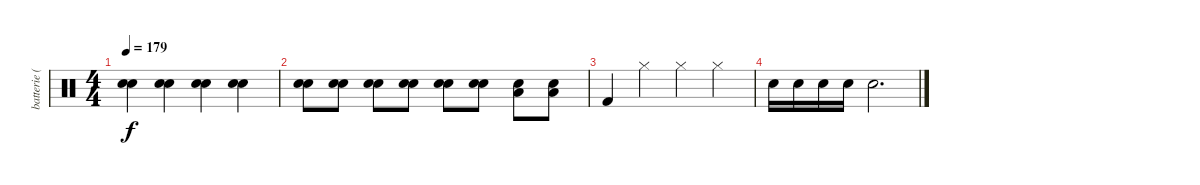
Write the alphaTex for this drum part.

\track ("batterie ( Carlos ) " "batterie (") {instrument percussion}
\staff {score}
\articulation defaults
\ts (4 4)
\tempo 179
\clef neutral
\ks c
("Electric Snare (hit)" "Snare (hit) 2").4{dy f} ("Electric Snare (hit)" "Snare (hit) 2").4 ("Electric Snare (hit)" "Snare (hit) 2").4 ("Electric Snare (hit)" "Snare (hit) 2").4 |
("Electric Snare (hit)" "Snare (hit) 2").8 ("Electric Snare (hit)" "Snare (hit) 2").8 ("Electric Snare (hit)" "Snare (hit) 2").8 ("Electric Snare (hit)" "Snare (hit) 2").8 ("Electric Snare (hit)" "Snare (hit) 2").8 ("Electric Snare (hit)" "Snare (hit) 2").8 ("Low Floor Tom (hit)" "Electric Snare (hit)").8 ("Low Floor Tom (hit)" "Electric Snare (hit)").8 |
"Kick (hit) 2".4 "Hi-Hat (closed)".4 "Hi-Hat (closed)".4 "Hi-Hat (closed)".4 |
"Electric Snare (hit)".16 "Electric Snare (hit)".16 "Electric Snare (hit)".16 "Electric Snare (hit)".16 "Electric Snare (hit)".2{d}
